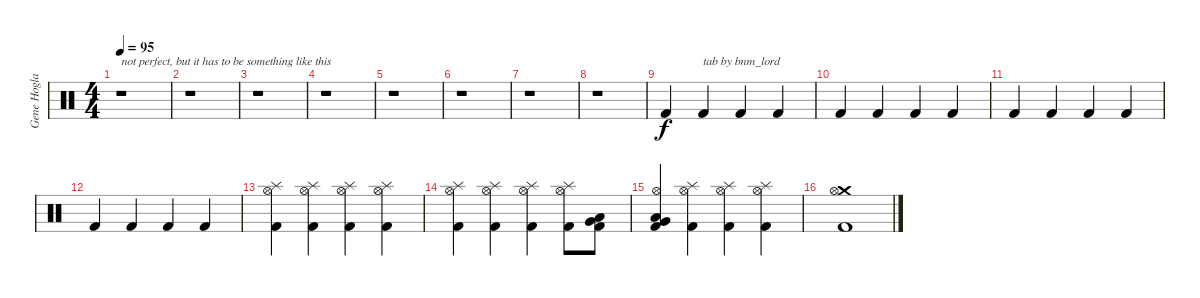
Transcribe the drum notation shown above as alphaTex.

\track ("Gene Hoglan" "Gene Hogla") {instrument percussion}
\staff {score}
\articulation defaults
\ts (4 4)
\tempo 95
\clef neutral
\ks c
r.1{txt "not perfect, but it has to be something like this" dy f} |
r.1 |
r.1 |
r.1 |
r.1 |
r.1 |
r.1 |
r.1 |
"Kick (hit) 2".4 "Kick (hit) 2".4{txt "tab by bnm_lord"} "Kick (hit) 2".4 "Kick (hit) 2".4 |
"Kick (hit) 2".4 "Kick (hit) 2".4 "Kick (hit) 2".4 "Kick (hit) 2".4 |
"Kick (hit) 2".4 "Kick (hit) 2".4 "Kick (hit) 2".4 "Kick (hit) 2".4 |
"Kick (hit) 2".4 "Kick (hit) 2".4 "Kick (hit) 2".4 "Kick (hit) 2".4 |
("Splash (hit)" "Hi-Hat (open)" "Kick (hit) 2").4 ("Splash (hit)" "Hi-Hat (open)" "Kick (hit) 2").4 ("Splash (hit)" "Hi-Hat (open)" "Kick (hit) 2").4 ("Splash (hit)" "Hi-Hat (open)" "Kick (hit) 2").4 |
("Splash (hit)" "Hi-Hat (open)" "Kick (hit) 2").4 ("Splash (hit)" "Hi-Hat (open)" "Kick (hit) 2").4 ("Splash (hit)" "Hi-Hat (open)" "Kick (hit) 2").4 ("Splash (hit)" "Hi-Hat (open)" "Kick (hit) 2").8 ("Low Floor Tom (hit)" "Very Low Tom (hit)" "Kick (hit) 2").8 |
("Low Floor Tom (hit)" "Hi-Hat (open)" "Very Low Tom (hit)" "Kick (hit) 2").4 ("Splash (hit)" "Hi-Hat (open)" "Kick (hit) 2").4 ("Splash (hit)" "Hi-Hat (open)" "Kick (hit) 2").4 ("Splash (hit)" "Hi-Hat (open)" "Kick (hit) 2").4 |
("Crash medium (hit)" "Hi-Hat (open)" "Kick (hit) 2").1
